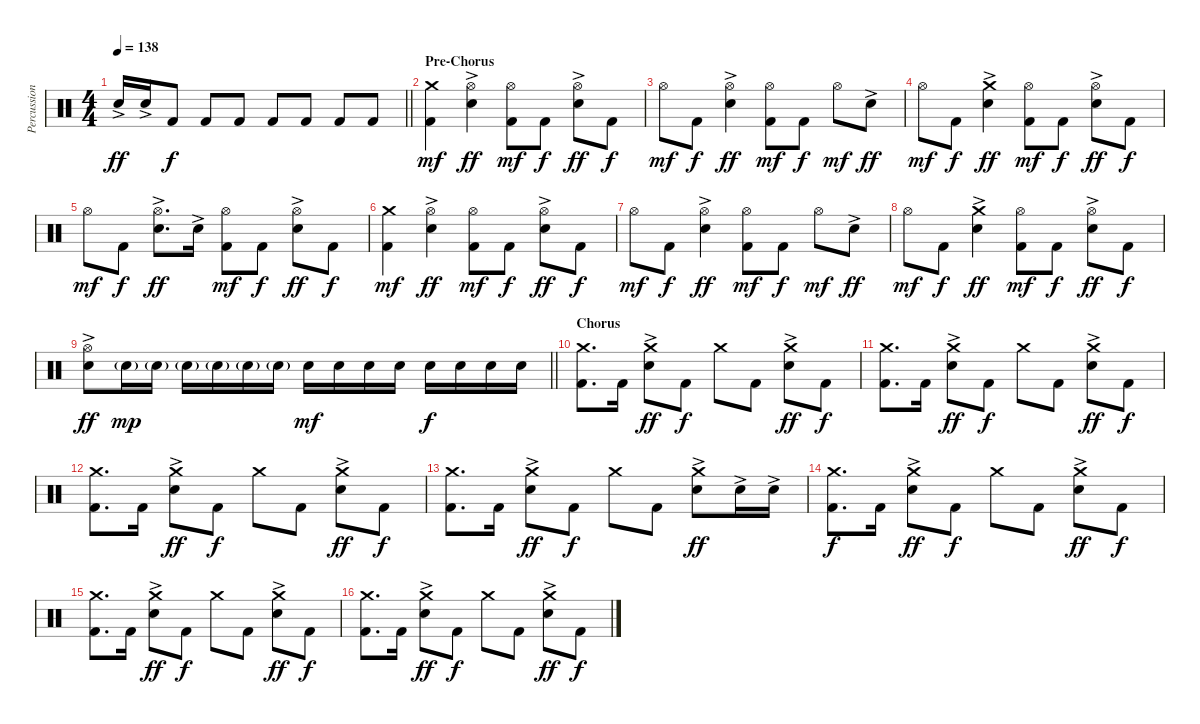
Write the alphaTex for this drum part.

\track ("Percussion" "Percussion") {instrument percussion}
\staff {score}
\articulation defaults
\ts (4 4)
\tempo 138
\clef neutral
\barLineRight lightlight
\ks c "Electric Snare (hit)"{ac}.16{dy ff} "Electric Snare (hit)"{ac}.16 "Kick (hit) 2".8{dy f} "Kick (hit) 2".8 "Kick (hit) 2".8 "Kick (hit) 2".8 "Kick (hit) 2".8 "Kick (hit) 2".8 "Kick (hit) 2".8
|
\section ("" "Pre-Chorus")
("Crash medium (hit)" "Kick (hit) 2").4{dy mf} ("Hi-Hat (open)" "Electric Snare (hit)"{ac}).4{dy ff} ("Hi-Hat (open)" "Kick (hit) 2").8{dy mf} "Kick (hit) 2".8{dy f} ("Hi-Hat (open)" "Electric Snare (hit)"{ac}).8{dy ff} "Kick (hit) 2".8{dy f} |
"Hi-Hat (open)".8{dy mf} "Kick (hit) 2".8{dy f} ("Hi-Hat (open)" "Electric Snare (hit)"{ac}).4{dy ff} ("Hi-Hat (open)" "Kick (hit) 2").8{dy mf} "Kick (hit) 2".8{dy f} "Hi-Hat (open)".8{dy mf} "Electric Snare (hit)"{ac}.8{dy ff} |
"Hi-Hat (open)".8{dy mf} "Kick (hit) 2".8{dy f} ("Crash medium (hit)" "Electric Snare (hit)"{ac}).4{dy ff} ("Hi-Hat (open)" "Kick (hit) 2").8{dy mf} "Kick (hit) 2".8{dy f} ("Hi-Hat (open)" "Electric Snare (hit)"{ac}).8{dy ff} "Kick (hit) 2".8{dy f} |
"Hi-Hat (open)".8{dy mf} "Kick (hit) 2".8{dy f} ("Hi-Hat (open)" "Electric Snare (hit)"{ac}).8{d dy ff} "Electric Snare (hit)"{ac}.16 ("Hi-Hat (open)" "Kick (hit) 2").8{dy mf} "Kick (hit) 2".8{dy f} ("Hi-Hat (open)" "Electric Snare (hit)"{ac}).8{dy ff} "Kick (hit) 2".8{dy f} |
("Crash medium (hit)" "Kick (hit) 2").4{dy mf} ("Hi-Hat (open)" "Electric Snare (hit)"{ac}).4{dy ff} ("Hi-Hat (open)" "Kick (hit) 2").8{dy mf} "Kick (hit) 2".8{dy f} ("Hi-Hat (open)" "Electric Snare (hit)"{ac}).8{dy ff} "Kick (hit) 2".8{dy f} |
"Hi-Hat (open)".8{dy mf} "Kick (hit) 2".8{dy f} ("Hi-Hat (open)" "Electric Snare (hit)"{ac}).4{dy ff} ("Hi-Hat (open)" "Kick (hit) 2").8{dy mf} "Kick (hit) 2".8{dy f} "Hi-Hat (open)".8{dy mf} "Electric Snare (hit)"{ac}.8{dy ff} |
"Hi-Hat (open)".8{dy mf} "Kick (hit) 2".8{dy f} ("Crash medium (hit)" "Electric Snare (hit)"{ac}).4{dy ff} ("Hi-Hat (open)" "Kick (hit) 2").8{dy mf} "Kick (hit) 2".8{dy f} ("Hi-Hat (open)" "Electric Snare (hit)"{ac}).8{dy ff} "Kick (hit) 2".8{dy f} |
\barLineRight lightlight
("Hi-Hat (open)" "Electric Snare (hit)"{ac}).8{dy ff} "Electric Snare (hit)"{g}.16{dy mp} "Electric Snare (hit)"{g}.16 "Electric Snare (hit)"{g}.16 "Electric Snare (hit)"{g}.16 "Electric Snare (hit)"{g}.16 "Electric Snare (hit)"{g}.16 "Electric Snare (hit)".16{dy mf} "Electric Snare (hit)".16 "Electric Snare (hit)".16 "Electric Snare (hit)".16 "Electric Snare (hit)".16{dy f} "Electric Snare (hit)".16 "Electric Snare (hit)".16 "Electric Snare (hit)".16 |
\section ("" "Chorus")
("Crash medium (hit)" "Kick (hit) 2").8{d} "Kick (hit) 2".16 ("Crash medium (hit)" "Electric Snare (hit)"{ac}).8{dy ff} "Kick (hit) 2".8{dy f} "Crash medium (hit)".8 "Kick (hit) 2".8 ("Crash medium (hit)" "Electric Snare (hit)"{ac}).8{dy ff} "Kick (hit) 2".8{dy f} |
("Crash medium (hit)" "Kick (hit) 2").8{d} "Kick (hit) 2".16 ("Crash medium (hit)" "Electric Snare (hit)"{ac}).8{dy ff} "Kick (hit) 2".8{dy f} "Crash medium (hit)".8 "Kick (hit) 2".8 ("Crash medium (hit)" "Electric Snare (hit)"{ac}).8{dy ff} "Kick (hit) 2".8{dy f} |
("Crash medium (hit)" "Kick (hit) 2").8{d} "Kick (hit) 2".16 ("Crash medium (hit)" "Electric Snare (hit)"{ac}).8{dy ff} "Kick (hit) 2".8{dy f} "Crash medium (hit)".8 "Kick (hit) 2".8 ("Crash medium (hit)" "Electric Snare (hit)"{ac}).8{dy ff} "Kick (hit) 2".8{dy f} |
("Crash medium (hit)" "Kick (hit) 2").8{d} "Kick (hit) 2".16 ("Crash medium (hit)" "Electric Snare (hit)"{ac}).8{dy ff} "Kick (hit) 2".8{dy f} "Crash medium (hit)".8 "Kick (hit) 2".8 ("Crash medium (hit)" "Electric Snare (hit)"{ac}).8{dy ff} "Electric Snare (hit)"{ac}.16 "Electric Snare (hit)"{ac}.16 |
("Crash medium (hit)" "Kick (hit) 2").8{d dy f} "Kick (hit) 2".16 ("Crash medium (hit)" "Electric Snare (hit)"{ac}).8{dy ff} "Kick (hit) 2".8{dy f} "Crash medium (hit)".8 "Kick (hit) 2".8 ("Crash medium (hit)" "Electric Snare (hit)"{ac}).8{dy ff} "Kick (hit) 2".8{dy f} |
("Crash medium (hit)" "Kick (hit) 2").8{d} "Kick (hit) 2".16 ("Crash medium (hit)" "Electric Snare (hit)"{ac}).8{dy ff} "Kick (hit) 2".8{dy f} "Crash medium (hit)".8 "Kick (hit) 2".8 ("Crash medium (hit)" "Electric Snare (hit)"{ac}).8{dy ff} "Kick (hit) 2".8{dy f} |
("Crash medium (hit)" "Kick (hit) 2").8{d} "Kick (hit) 2".16 ("Crash medium (hit)" "Electric Snare (hit)"{ac}).8{dy ff} "Kick (hit) 2".8{dy f} "Crash medium (hit)".8 "Kick (hit) 2".8 ("Crash medium (hit)" "Electric Snare (hit)"{ac}).8{dy ff} "Kick (hit) 2".8{dy f}
